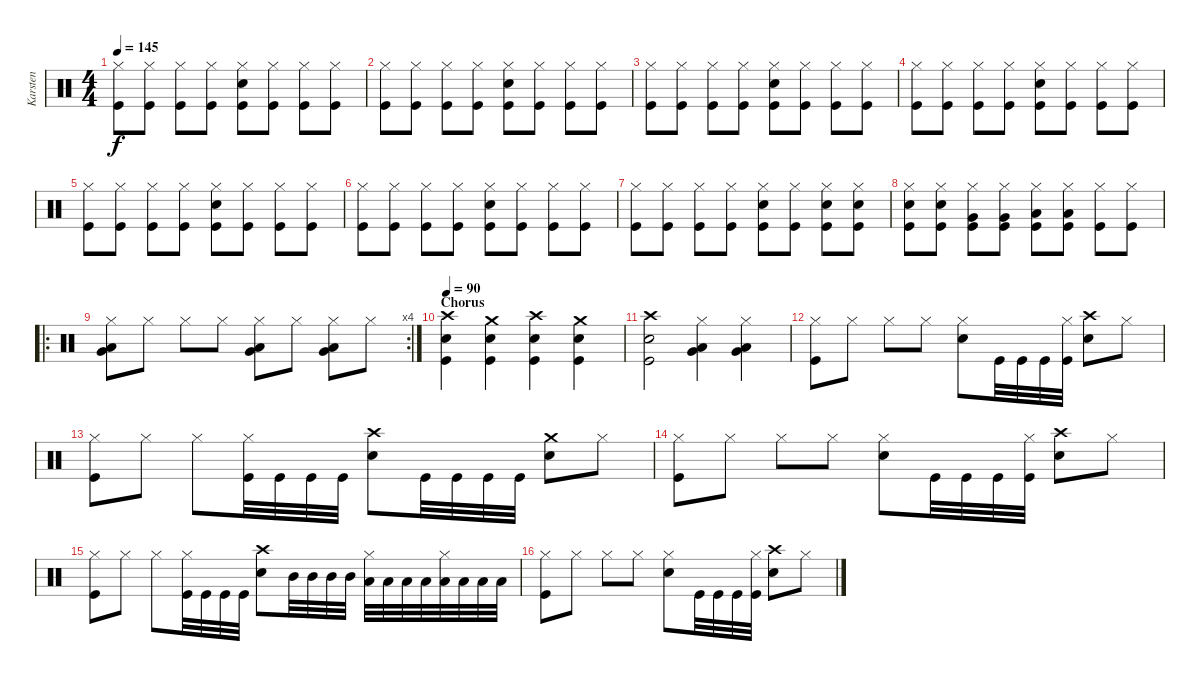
\track ("Karsten" "Karsten") {instrument percussion}
\staff {score}
\articulation defaults
\ts (4 4)
\tempo 145
\clef neutral
\ks c
("Hi-Hat (closed)" "Kick (hit)").8{dy f} ("Hi-Hat (closed)" "Kick (hit)").8 ("Hi-Hat (closed)" "Kick (hit)").8 ("Hi-Hat (closed)" "Kick (hit)").8 ("Hi-Hat (closed)" "Snare (hit) 2" "Kick (hit)").8 ("Hi-Hat (closed)" "Kick (hit)").8 ("Hi-Hat (closed)" "Kick (hit)").8 ("Hi-Hat (closed)" "Kick (hit)").8 |
("Hi-Hat (closed)" "Kick (hit)").8 ("Hi-Hat (closed)" "Kick (hit)").8 ("Hi-Hat (closed)" "Kick (hit)").8 ("Hi-Hat (closed)" "Kick (hit)").8 ("Hi-Hat (closed)" "Snare (hit) 2" "Kick (hit)").8 ("Hi-Hat (closed)" "Kick (hit)").8 ("Hi-Hat (closed)" "Kick (hit)").8 ("Hi-Hat (closed)" "Kick (hit)").8 |
("Hi-Hat (closed)" "Kick (hit)").8 ("Hi-Hat (closed)" "Kick (hit)").8 ("Hi-Hat (closed)" "Kick (hit)").8 ("Hi-Hat (closed)" "Kick (hit)").8 ("Hi-Hat (closed)" "Snare (hit) 2" "Kick (hit)").8 ("Hi-Hat (closed)" "Kick (hit)").8 ("Hi-Hat (closed)" "Kick (hit)").8 ("Hi-Hat (closed)" "Kick (hit)").8 |
("Hi-Hat (closed)" "Kick (hit)").8 ("Hi-Hat (closed)" "Kick (hit)").8 ("Hi-Hat (closed)" "Kick (hit)").8 ("Hi-Hat (closed)" "Kick (hit)").8 ("Hi-Hat (closed)" "Snare (hit) 2" "Kick (hit)").8 ("Hi-Hat (closed)" "Kick (hit)").8 ("Hi-Hat (closed)" "Kick (hit)").8 ("Hi-Hat (closed)" "Kick (hit)").8 |
("Hi-Hat (closed)" "Kick (hit)").8 ("Hi-Hat (closed)" "Kick (hit)").8 ("Hi-Hat (closed)" "Kick (hit)").8 ("Hi-Hat (closed)" "Kick (hit)").8 ("Hi-Hat (closed)" "Snare (hit) 2" "Kick (hit)").8 ("Hi-Hat (closed)" "Kick (hit)").8 ("Hi-Hat (closed)" "Kick (hit)").8 ("Hi-Hat (closed)" "Kick (hit)").8 |
("Hi-Hat (closed)" "Kick (hit)").8 ("Hi-Hat (closed)" "Kick (hit)").8 ("Hi-Hat (closed)" "Kick (hit)").8 ("Hi-Hat (closed)" "Kick (hit)").8 ("Hi-Hat (closed)" "Snare (hit) 2" "Kick (hit)").8 ("Hi-Hat (closed)" "Kick (hit)").8 ("Hi-Hat (closed)" "Kick (hit)").8 ("Hi-Hat (closed)" "Kick (hit)").8 |
("Hi-Hat (closed)" "Kick (hit)").8 ("Hi-Hat (closed)" "Kick (hit)").8 ("Hi-Hat (closed)" "Kick (hit)").8 ("Hi-Hat (closed)" "Kick (hit)").8 ("Hi-Hat (closed)" "Snare (hit) 2" "Kick (hit)").8 ("Hi-Hat (closed)" "Kick (hit)").8 ("Hi-Hat (closed)" "Snare (hit) 2" "Kick (hit)").8 ("Hi-Hat (closed)" "Snare (hit) 2" "Kick (hit)").8 |
("Hi-Hat (closed)" "Snare (hit) 2" "Kick (hit)").8 ("Hi-Hat (closed)" "Snare (hit) 2" "Kick (hit)").8 ("Hi-Hat (closed)" "Very Low Tom (hit)" "Kick (hit)").8 ("Hi-Hat (closed)" "Very Low Tom (hit)" "Kick (hit)").8 ("Hi-Hat (closed)" "Low Floor Tom (hit)" "Kick (hit)").8 ("Hi-Hat (closed)" "Low Floor Tom (hit)" "Kick (hit)").8 ("Hi-Hat (closed)" "Kick (hit)").8 ("Hi-Hat (closed)" "Kick (hit)").8 |
\ro
\rc 4
("Hi-Hat (closed)" "Very Low Tom (hit)" "Low Floor Tom (hit)").8 "Hi-Hat (closed)".8 "Hi-Hat (closed)".8 "Hi-Hat (closed)".8 ("Hi-Hat (closed)" "Very Low Tom (hit)" "Low Floor Tom (hit)").8 "Hi-Hat (closed)".8 ("Hi-Hat (closed)" "Very Low Tom (hit)" "Low Floor Tom (hit)").8 "Hi-Hat (closed)".8 |
\section ("" "Chorus")
\tempo 90
("Crash high (hit)" "Snare (hit) 2" "Kick (hit)").4 ("Crash medium (hit)" "Snare (hit) 2" "Kick (hit)").4 ("Crash high (hit)" "Snare (hit) 2" "Kick (hit)").4 ("Crash medium (hit)" "Snare (hit) 2" "Kick (hit)").4 |
("Crash high (hit)" "Snare (hit) 2" "Kick (hit)").2 ("Hi-Hat (closed)" "Very Low Tom (hit)" "Low Floor Tom (hit)").4 ("Hi-Hat (closed)" "Very Low Tom (hit)" "Low Floor Tom (hit)").4 |
("Hi-Hat (closed)" "Kick (hit)").8 "Hi-Hat (closed)".8 "Hi-Hat (closed)".8 "Hi-Hat (closed)".8 ("Hi-Hat (closed)" "Snare (hit) 2").8 "Kick (hit)".32 "Kick (hit)".32 "Kick (hit)".32 ("Hi-Hat (closed)" "Kick (hit)").32 ("Crash high (hit)" "Snare (hit) 2").8 "Hi-Hat (closed)".8 |
("Hi-Hat (closed)" "Kick (hit)").8 "Hi-Hat (closed)".8 "Hi-Hat (closed)".8 ("Hi-Hat (closed)" "Kick (hit)").32 "Kick (hit)".32 "Kick (hit)".32 "Kick (hit)".32 ("Crash high (hit)" "Snare (hit) 2").8 "Kick (hit)".32 "Kick (hit)".32 "Kick (hit)".32 "Kick (hit)".32 ("Crash medium (hit)" "Snare (hit) 2").8 "Hi-Hat (closed)".8 |
("Hi-Hat (closed)" "Kick (hit)").8 "Hi-Hat (closed)".8 "Hi-Hat (closed)".8 "Hi-Hat (closed)".8 ("Hi-Hat (closed)" "Snare (hit) 2").8 "Kick (hit)".32 "Kick (hit)".32 "Kick (hit)".32 ("Hi-Hat (closed)" "Kick (hit)").32 ("Crash high (hit)" "Snare (hit) 2").8 "Hi-Hat (closed)".8 |
("Hi-Hat (closed)" "Kick (hit)").8 "Hi-Hat (closed)".8 "Hi-Hat (closed)".8 ("Hi-Hat (closed)" "Kick (hit)").32 "Kick (hit)".32 "Kick (hit)".32 "Kick (hit)".32 ("Crash high (hit)" "Snare (hit) 2").8 "Mid Tom (hit)".32 "Mid Tom (hit)".32 "Mid Tom (hit)".32 "Mid Tom (hit)".32 ("Hi-Hat (closed)" "Low Tom (hit)").32 "Low Tom (hit)".32 "Low Tom (hit)".32 "Low Tom (hit)".32 ("Hi-Hat (closed)" "Low Floor Tom (hit)").32 "Low Floor Tom (hit)".32 "Low Floor Tom (hit)".32 "Low Floor Tom (hit)".32 |
("Hi-Hat (closed)" "Kick (hit)").8 "Hi-Hat (closed)".8 "Hi-Hat (closed)".8 "Hi-Hat (closed)".8 ("Hi-Hat (closed)" "Snare (hit) 2").8 "Kick (hit)".32 "Kick (hit)".32 "Kick (hit)".32 ("Hi-Hat (closed)" "Kick (hit)").32 ("Crash high (hit)" "Snare (hit) 2").8 "Hi-Hat (closed)".8
